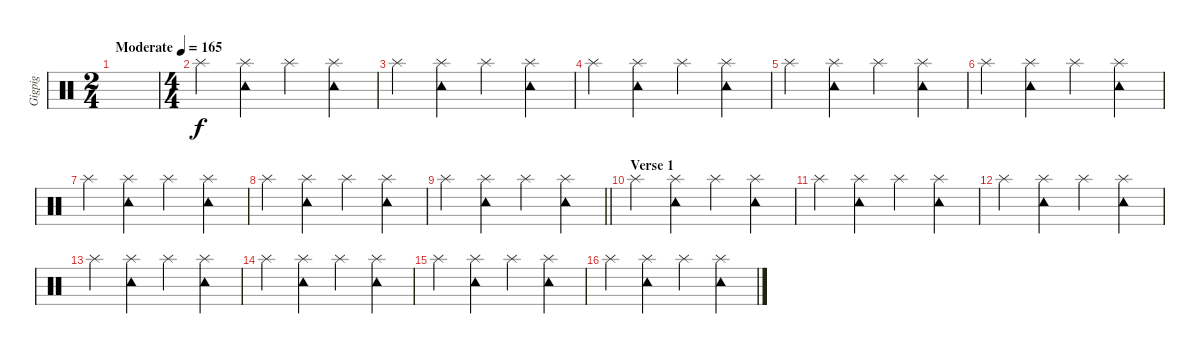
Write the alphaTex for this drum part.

\track ("Gigpig" "Gigpig") {instrument percussion}
\staff {score}
\articulation defaults
\ts (2 4)
\tempo (165 "Moderate")
\clef neutral
\ks c
|
\ts (4 4)
"Splash (hit)".4 ("Splash (hit)" "Tambourine (hit)").4 "Splash (hit)".4 ("Splash (hit)" "Tambourine (hit)").4 |
"Splash (hit)".4 ("Splash (hit)" "Tambourine (hit)").4 "Splash (hit)".4 ("Splash (hit)" "Tambourine (hit)").4 |
"Splash (hit)".4 ("Splash (hit)" "Tambourine (hit)").4 "Splash (hit)".4 ("Splash (hit)" "Tambourine (hit)").4 |
"Splash (hit)".4 ("Splash (hit)" "Tambourine (hit)").4 "Splash (hit)".4 ("Splash (hit)" "Tambourine (hit)").4 |
"Splash (hit)".4 ("Splash (hit)" "Tambourine (hit)").4 "Splash (hit)".4 ("Splash (hit)" "Tambourine (hit)").4 |
"Splash (hit)".4 ("Splash (hit)" "Tambourine (hit)").4 "Splash (hit)".4 ("Splash (hit)" "Tambourine (hit)").4 |
"Splash (hit)".4 ("Splash (hit)" "Tambourine (hit)").4 "Splash (hit)".4 ("Splash (hit)" "Tambourine (hit)").4 |
\barLineRight lightlight "Splash (hit)".4
("Splash (hit)" "Tambourine (hit)").4 "Splash (hit)".4 ("Splash (hit)" "Tambourine (hit)").4 |
\section ("" "Verse 1")
"Splash (hit)".4 ("Splash (hit)" "Tambourine (hit)").4 "Splash (hit)".4 ("Splash (hit)" "Tambourine (hit)").4 |
"Splash (hit)".4 ("Splash (hit)" "Tambourine (hit)").4 "Splash (hit)".4 ("Splash (hit)" "Tambourine (hit)").4 |
"Splash (hit)".4 ("Splash (hit)" "Tambourine (hit)").4 "Splash (hit)".4 ("Splash (hit)" "Tambourine (hit)").4 |
"Splash (hit)".4 ("Splash (hit)" "Tambourine (hit)").4 "Splash (hit)".4 ("Splash (hit)" "Tambourine (hit)").4 |
"Splash (hit)".4 ("Splash (hit)" "Tambourine (hit)").4 "Splash (hit)".4 ("Splash (hit)" "Tambourine (hit)").4 |
"Splash (hit)".4 ("Splash (hit)" "Tambourine (hit)").4 "Splash (hit)".4 ("Splash (hit)" "Tambourine (hit)").4 |
"Splash (hit)".4 ("Splash (hit)" "Tambourine (hit)").4 "Splash (hit)".4 ("Splash (hit)" "Tambourine (hit)").4
